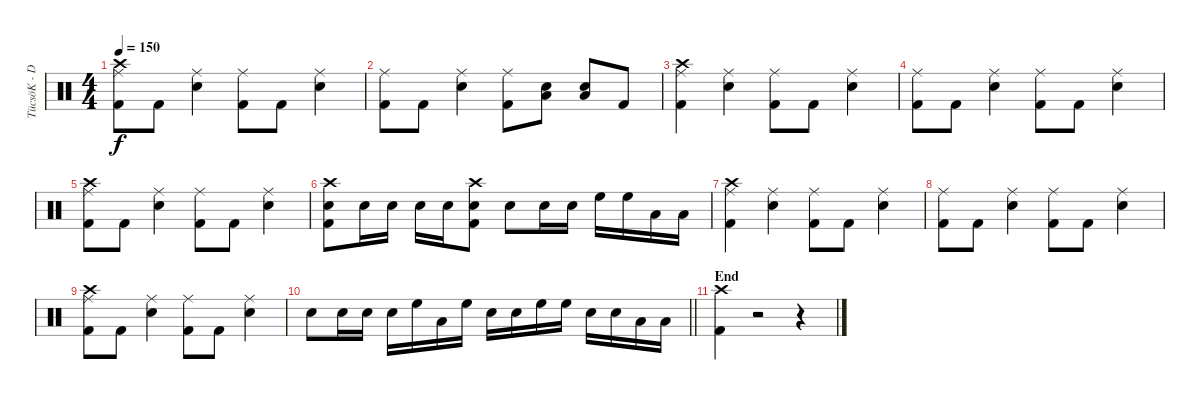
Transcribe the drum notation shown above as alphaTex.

\track ("TücsöK - Dob" "TücsöK - D") {instrument percussion}
\staff {score}
\articulation defaults
\ts (4 4)
\tempo 150
\clef neutral
\ks c
("Crash high (hit)" "Ride (middle)" "Kick (hit) 2").8{dy f} "Kick (hit) 2".8 ("Ride (middle)" "Snare (hit) 2").4 ("Ride (middle)" "Kick (hit) 2").8 "Kick (hit) 2".8 ("Ride (middle)" "Snare (hit) 2").4 |
("Ride (middle)" "Kick (hit) 2").8 "Kick (hit) 2".8 ("Ride (middle)" "Snare (hit) 2").4 ("Ride (middle)" "Kick (hit) 2").8 ("Snare (hit) 2" "Low Tom (hit)").8 ("Snare (hit) 2" "Low Tom (hit)").8 "Kick (hit) 2".8 |
("Crash high (hit)" "Ride (middle)" "Kick (hit) 2").4 ("Ride (middle)" "Snare (hit) 2").4 ("Ride (middle)" "Kick (hit) 2").8 "Kick (hit) 2".8 ("Ride (middle)" "Snare (hit) 2").4 |
("Ride (middle)" "Kick (hit) 2").8 "Kick (hit) 2".8 ("Ride (middle)" "Snare (hit) 2").4 ("Ride (middle)" "Kick (hit) 2").8 "Kick (hit) 2".8 ("Ride (middle)" "Snare (hit) 2").4 |
("Crash high (hit)" "Ride (middle)" "Kick (hit) 2").8 "Kick (hit) 2".8 ("Ride (middle)" "Snare (hit) 2").4 ("Ride (middle)" "Kick (hit) 2").8 "Kick (hit) 2".8 ("Ride (middle)" "Snare (hit) 2").4 |
("Crash high (hit)" "Snare (hit) 2" "Kick (hit) 2").8 "Snare (hit) 2".16 "Snare (hit) 2".16 "Snare (hit) 2".16 "Snare (hit) 2".16 ("Crash high (hit)" "Snare (hit) 2" "Kick (hit) 2").8 "Snare (hit) 2".8 "Snare (hit) 2".16 "Snare (hit) 2".16 "High Floor Tom (hit)".16 "High Floor Tom (hit)".16 "Low Tom (hit)".16 "Low Tom (hit)".16 |
("Crash high (hit)" "Ride (middle)" "Kick (hit) 2").4 ("Ride (middle)" "Snare (hit) 2").4 ("Ride (middle)" "Kick (hit) 2").8 "Kick (hit) 2".8 ("Ride (middle)" "Snare (hit) 2").4 |
("Ride (middle)" "Kick (hit) 2").8 "Kick (hit) 2".8 ("Ride (middle)" "Snare (hit) 2").4 ("Ride (middle)" "Kick (hit) 2").8 "Kick (hit) 2".8 ("Ride (middle)" "Snare (hit) 2").4 |
("Crash high (hit)" "Ride (middle)" "Kick (hit) 2").8 "Kick (hit) 2".8 ("Ride (middle)" "Snare (hit) 2").4 ("Ride (middle)" "Kick (hit) 2").8 "Kick (hit) 2".8 ("Ride (middle)" "Snare (hit) 2").4 |
\barLineRight lightlight "Snare (hit) 2".8 "Snare (hit) 2".16 "Snare (hit) 2".16 "Snare (hit) 2".16 "High Floor Tom (hit)".16 "Low Tom (hit)".16 "High Floor Tom (hit)".16 "Snare (hit) 2".16 "Snare (hit) 2".16 "High Floor Tom (hit)".16 "High Floor Tom (hit)".16 "Snare (hit) 2".16 "Snare (hit) 2".16 "Low Tom (hit)".16 "Low Tom (hit)".16
|
\section ("" "End")
("Crash high (hit)" "Kick (hit) 2").4 r.2 r.4
